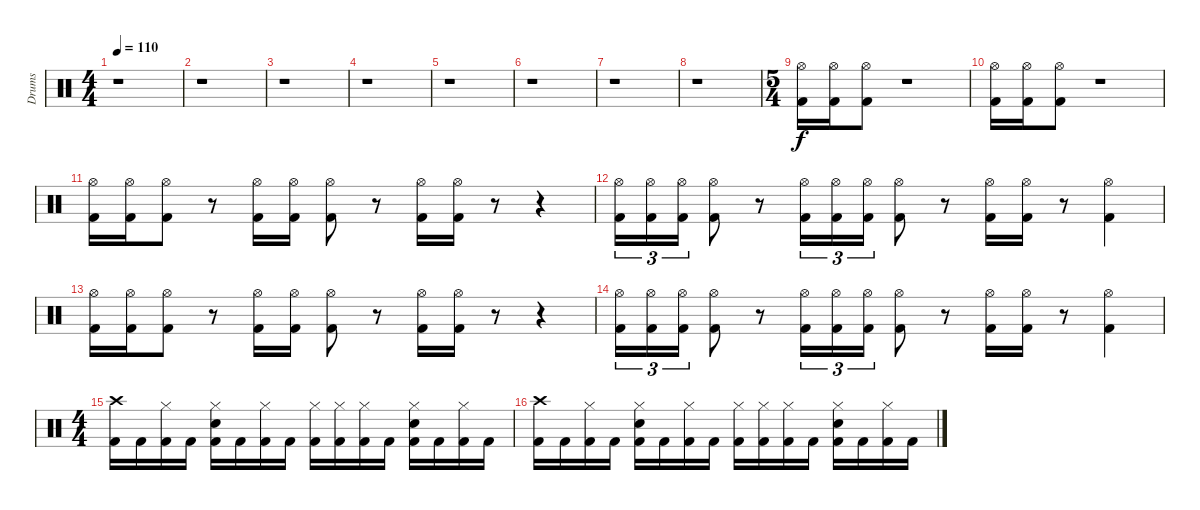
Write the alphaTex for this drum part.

\track ("Drums" "Drums") {instrument percussion}
\staff {score}
\articulation defaults
\ts (4 4)
\tempo 110
\clef neutral
\ks c
r.1{dy f} |
r.1 |
r.1 |
r.1 |
r.1 |
r.1 |
r.1 |
r.1 |
\ts (5 4)
("Hi-Hat (open)" "Kick (hit) 2").16 ("Hi-Hat (open)" "Kick (hit) 2").16 ("Hi-Hat (open)" "Kick (hit) 2").8 r.1 |
("Hi-Hat (open)" "Kick (hit) 2").16 ("Hi-Hat (open)" "Kick (hit) 2").16 ("Hi-Hat (open)" "Kick (hit) 2").8 r.1 |
("Hi-Hat (open)" "Kick (hit) 2").16 ("Hi-Hat (open)" "Kick (hit) 2").16 ("Hi-Hat (open)" "Kick (hit) 2").8 r.8 ("Hi-Hat (open)" "Kick (hit) 2").16 ("Hi-Hat (open)" "Kick (hit) 2").16 ("Hi-Hat (open)" "Kick (hit) 2").8 r.8 ("Hi-Hat (open)" "Kick (hit) 2").16 ("Hi-Hat (open)" "Kick (hit) 2").16 r.8 r.4 |
("Hi-Hat (open)" "Kick (hit) 2").16{tu (3 2)} ("Hi-Hat (open)" "Kick (hit) 2").16{tu (3 2)} ("Hi-Hat (open)" "Kick (hit) 2").16{tu (3 2)} ("Hi-Hat (open)" "Kick (hit) 2").8 r.8 ("Hi-Hat (open)" "Kick (hit) 2").16{tu (3 2)} ("Hi-Hat (open)" "Kick (hit) 2").16{tu (3 2)} ("Hi-Hat (open)" "Kick (hit) 2").16{tu (3 2)} ("Hi-Hat (open)" "Kick (hit) 2").8 r.8 ("Hi-Hat (open)" "Kick (hit) 2").16 ("Hi-Hat (open)" "Kick (hit) 2").16 r.8 ("Hi-Hat (open)" "Kick (hit) 2").4 |
("Hi-Hat (open)" "Kick (hit) 2").16 ("Hi-Hat (open)" "Kick (hit) 2").16 ("Hi-Hat (open)" "Kick (hit) 2").8 r.8 ("Hi-Hat (open)" "Kick (hit) 2").16 ("Hi-Hat (open)" "Kick (hit) 2").16 ("Hi-Hat (open)" "Kick (hit) 2").8 r.8 ("Hi-Hat (open)" "Kick (hit) 2").16 ("Hi-Hat (open)" "Kick (hit) 2").16 r.8 r.4 |
("Hi-Hat (open)" "Kick (hit) 2").16{tu (3 2)} ("Hi-Hat (open)" "Kick (hit) 2").16{tu (3 2)} ("Hi-Hat (open)" "Kick (hit) 2").16{tu (3 2)} ("Hi-Hat (open)" "Kick (hit) 2").8 r.8 ("Hi-Hat (open)" "Kick (hit) 2").16{tu (3 2)} ("Hi-Hat (open)" "Kick (hit) 2").16{tu (3 2)} ("Hi-Hat (open)" "Kick (hit) 2").16{tu (3 2)} ("Hi-Hat (open)" "Kick (hit) 2").8 r.8 ("Hi-Hat (open)" "Kick (hit) 2").16 ("Hi-Hat (open)" "Kick (hit) 2").16 r.8 ("Hi-Hat (open)" "Kick (hit) 2").4 |
\ts (4 4)
("Crash high (hit)" "Kick (hit) 2").16 "Kick (hit) 2".16 ("Hi-Hat (closed)" "Kick (hit) 2").16 "Kick (hit) 2".16 ("Hi-Hat (closed)" "Electric Snare (hit)" "Kick (hit) 2").16 "Kick (hit) 2".16 ("Hi-Hat (closed)" "Kick (hit) 2").16 "Kick (hit) 2".16 ("Hi-Hat (closed)" "Kick (hit) 2").16 ("Hi-Hat (closed)" "Kick (hit) 2").16 ("Hi-Hat (closed)" "Kick (hit) 2").16 "Kick (hit) 2".16 ("Hi-Hat (closed)" "Electric Snare (hit)" "Kick (hit) 2").16 "Kick (hit) 2".16 ("Hi-Hat (closed)" "Kick (hit) 2").16 "Kick (hit) 2".16 |
("Crash high (hit)" "Kick (hit) 2").16 "Kick (hit) 2".16 ("Hi-Hat (closed)" "Kick (hit) 2").16 "Kick (hit) 2".16 ("Hi-Hat (closed)" "Electric Snare (hit)" "Kick (hit) 2").16 "Kick (hit) 2".16 ("Hi-Hat (closed)" "Kick (hit) 2").16 "Kick (hit) 2".16 ("Hi-Hat (closed)" "Kick (hit) 2").16 ("Hi-Hat (closed)" "Kick (hit) 2").16 ("Hi-Hat (closed)" "Kick (hit) 2").16 "Kick (hit) 2".16 ("Hi-Hat (closed)" "Electric Snare (hit)" "Kick (hit) 2").16 "Kick (hit) 2".16 ("Hi-Hat (closed)" "Kick (hit) 2").16 "Kick (hit) 2".16
